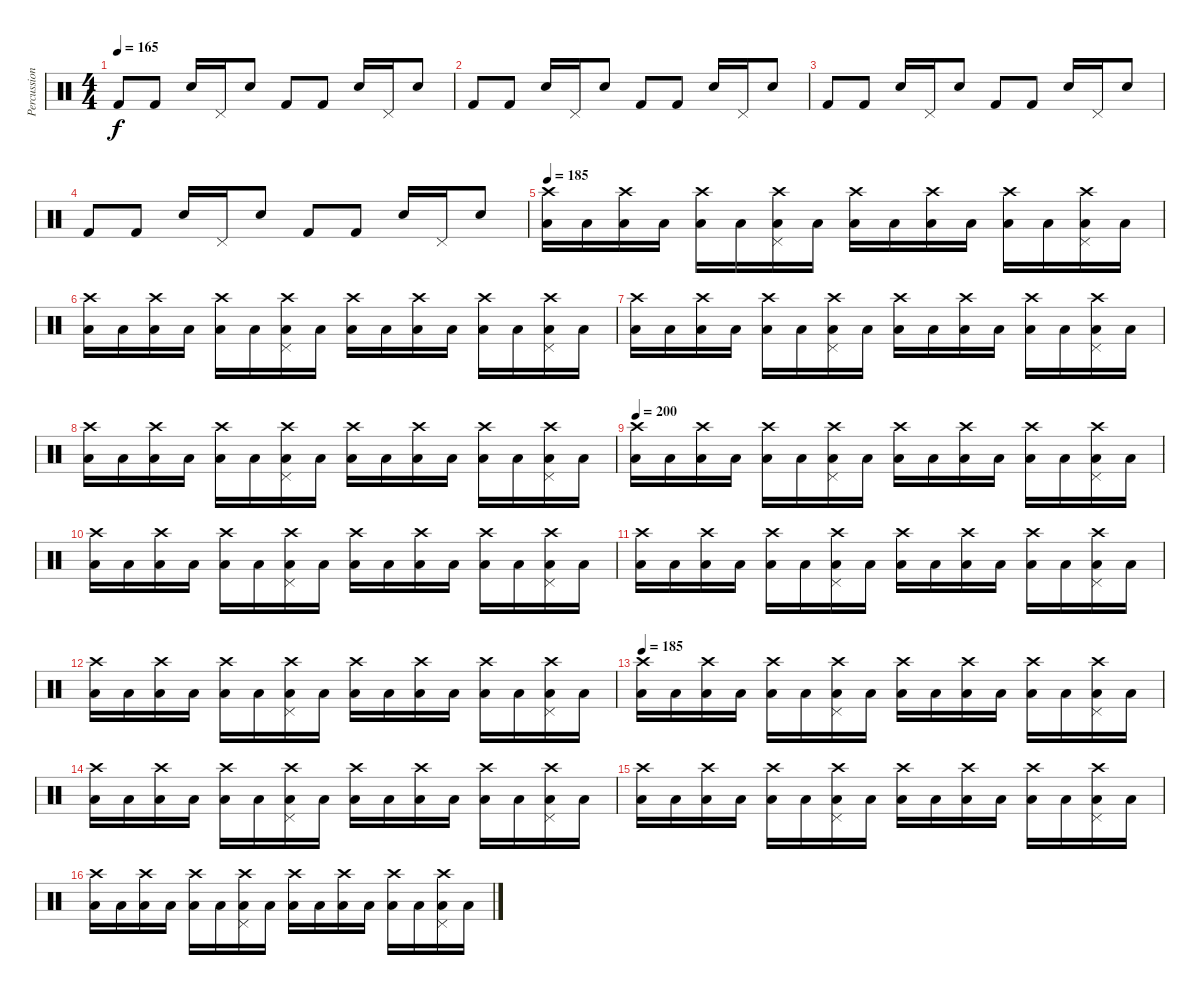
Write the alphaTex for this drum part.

\track ("Percussion" "Percussion") {instrument percussion}
\staff {score}
\articulation defaults
\ts (4 4)
\tempo 145
\tempo 165
\clef neutral
\ks c "Kick (hit) 2".8{dy f} "Kick (hit) 2".8 "Electric Snare (hit)".16 "Pedal Hi-Hat (hit)".16 "Electric Snare (hit)".8 "Kick (hit) 2".8 "Kick (hit) 2".8 "Electric Snare (hit)".16 "Pedal Hi-Hat (hit)".16 "Electric Snare (hit)".8
|
"Kick (hit) 2".8 "Kick (hit) 2".8 "Electric Snare (hit)".16 "Pedal Hi-Hat (hit)".16 "Electric Snare (hit)".8 "Kick (hit) 2".8 "Kick (hit) 2".8 "Electric Snare (hit)".16 "Pedal Hi-Hat (hit)".16 "Electric Snare (hit)".8 |
"Kick (hit) 2".8 "Kick (hit) 2".8 "Electric Snare (hit)".16 "Pedal Hi-Hat (hit)".16 "Electric Snare (hit)".8 "Kick (hit) 2".8 "Kick (hit) 2".8 "Electric Snare (hit)".16 "Pedal Hi-Hat (hit)".16 "Electric Snare (hit)".8 |
"Kick (hit) 2".8 "Kick (hit) 2".8 "Electric Snare (hit)".16 "Pedal Hi-Hat (hit)".16 "Electric Snare (hit)".8 "Kick (hit) 2".8 "Kick (hit) 2".8 "Electric Snare (hit)".16 "Pedal Hi-Hat (hit)".16 "Electric Snare (hit)".8 |
\tempo 185
("Crash high (hit)" "Low Floor Tom (hit)").16 "Low Floor Tom (hit)".16 ("Crash high (hit)" "Low Floor Tom (hit)").16 "Low Floor Tom (hit)".16 ("Crash high (hit)" "Low Floor Tom (hit)").16 "Low Floor Tom (hit)".16 ("Crash high (hit)" "Pedal Hi-Hat (hit)" "Low Floor Tom (hit)").16 "Low Floor Tom (hit)".16 ("Crash high (hit)" "Low Floor Tom (hit)").16 "Low Floor Tom (hit)".16 ("Crash high (hit)" "Low Floor Tom (hit)").16 "Low Floor Tom (hit)".16 ("Crash high (hit)" "Low Floor Tom (hit)").16 "Low Floor Tom (hit)".16 ("Crash high (hit)" "Pedal Hi-Hat (hit)" "Low Floor Tom (hit)").16 "Low Floor Tom (hit)".16 |
("Crash high (hit)" "Low Floor Tom (hit)").16 "Low Floor Tom (hit)".16 ("Crash high (hit)" "Low Floor Tom (hit)").16 "Low Floor Tom (hit)".16 ("Crash high (hit)" "Low Floor Tom (hit)").16 "Low Floor Tom (hit)".16 ("Crash high (hit)" "Pedal Hi-Hat (hit)" "Low Floor Tom (hit)").16 "Low Floor Tom (hit)".16 ("Crash high (hit)" "Low Floor Tom (hit)").16 "Low Floor Tom (hit)".16 ("Crash high (hit)" "Low Floor Tom (hit)").16 "Low Floor Tom (hit)".16 ("Crash high (hit)" "Low Floor Tom (hit)").16 "Low Floor Tom (hit)".16 ("Crash high (hit)" "Pedal Hi-Hat (hit)" "Low Floor Tom (hit)").16 "Low Floor Tom (hit)".16 |
("Crash high (hit)" "Low Floor Tom (hit)").16 "Low Floor Tom (hit)".16 ("Crash high (hit)" "Low Floor Tom (hit)").16 "Low Floor Tom (hit)".16 ("Crash high (hit)" "Low Floor Tom (hit)").16 "Low Floor Tom (hit)".16 ("Crash high (hit)" "Pedal Hi-Hat (hit)" "Low Floor Tom (hit)").16 "Low Floor Tom (hit)".16 ("Crash high (hit)" "Low Floor Tom (hit)").16 "Low Floor Tom (hit)".16 ("Crash high (hit)" "Low Floor Tom (hit)").16 "Low Floor Tom (hit)".16 ("Crash high (hit)" "Low Floor Tom (hit)").16 "Low Floor Tom (hit)".16 ("Crash high (hit)" "Pedal Hi-Hat (hit)" "Low Floor Tom (hit)").16 "Low Floor Tom (hit)".16 |
("Crash high (hit)" "Low Floor Tom (hit)").16 "Low Floor Tom (hit)".16 ("Crash high (hit)" "Low Floor Tom (hit)").16 "Low Floor Tom (hit)".16 ("Crash high (hit)" "Low Floor Tom (hit)").16 "Low Floor Tom (hit)".16 ("Crash high (hit)" "Pedal Hi-Hat (hit)" "Low Floor Tom (hit)").16 "Low Floor Tom (hit)".16 ("Crash high (hit)" "Low Floor Tom (hit)").16 "Low Floor Tom (hit)".16 ("Crash high (hit)" "Low Floor Tom (hit)").16 "Low Floor Tom (hit)".16 ("Crash high (hit)" "Low Floor Tom (hit)").16 "Low Floor Tom (hit)".16 ("Crash high (hit)" "Pedal Hi-Hat (hit)" "Low Floor Tom (hit)").16 "Low Floor Tom (hit)".16 |
\tempo 200
("Crash high (hit)" "Low Floor Tom (hit)").16 "Low Floor Tom (hit)".16 ("Crash high (hit)" "Low Floor Tom (hit)").16 "Low Floor Tom (hit)".16 ("Crash high (hit)" "Low Floor Tom (hit)").16 "Low Floor Tom (hit)".16 ("Crash high (hit)" "Pedal Hi-Hat (hit)" "Low Floor Tom (hit)").16 "Low Floor Tom (hit)".16 ("Crash high (hit)" "Low Floor Tom (hit)").16 "Low Floor Tom (hit)".16 ("Crash high (hit)" "Low Floor Tom (hit)").16 "Low Floor Tom (hit)".16 ("Crash high (hit)" "Low Floor Tom (hit)").16 "Low Floor Tom (hit)".16 ("Crash high (hit)" "Pedal Hi-Hat (hit)" "Low Floor Tom (hit)").16 "Low Floor Tom (hit)".16 |
("Crash high (hit)" "Low Floor Tom (hit)").16 "Low Floor Tom (hit)".16 ("Crash high (hit)" "Low Floor Tom (hit)").16 "Low Floor Tom (hit)".16 ("Crash high (hit)" "Low Floor Tom (hit)").16 "Low Floor Tom (hit)".16 ("Crash high (hit)" "Pedal Hi-Hat (hit)" "Low Floor Tom (hit)").16 "Low Floor Tom (hit)".16 ("Crash high (hit)" "Low Floor Tom (hit)").16 "Low Floor Tom (hit)".16 ("Crash high (hit)" "Low Floor Tom (hit)").16 "Low Floor Tom (hit)".16 ("Crash high (hit)" "Low Floor Tom (hit)").16 "Low Floor Tom (hit)".16 ("Crash high (hit)" "Pedal Hi-Hat (hit)" "Low Floor Tom (hit)").16 "Low Floor Tom (hit)".16 |
("Crash high (hit)" "Low Floor Tom (hit)").16 "Low Floor Tom (hit)".16 ("Crash high (hit)" "Low Floor Tom (hit)").16 "Low Floor Tom (hit)".16 ("Crash high (hit)" "Low Floor Tom (hit)").16 "Low Floor Tom (hit)".16 ("Crash high (hit)" "Pedal Hi-Hat (hit)" "Low Floor Tom (hit)").16 "Low Floor Tom (hit)".16 ("Crash high (hit)" "Low Floor Tom (hit)").16 "Low Floor Tom (hit)".16 ("Crash high (hit)" "Low Floor Tom (hit)").16 "Low Floor Tom (hit)".16 ("Crash high (hit)" "Low Floor Tom (hit)").16 "Low Floor Tom (hit)".16 ("Crash high (hit)" "Pedal Hi-Hat (hit)" "Low Floor Tom (hit)").16 "Low Floor Tom (hit)".16 |
("Crash high (hit)" "Low Floor Tom (hit)").16 "Low Floor Tom (hit)".16 ("Crash high (hit)" "Low Floor Tom (hit)").16 "Low Floor Tom (hit)".16 ("Crash high (hit)" "Low Floor Tom (hit)").16 "Low Floor Tom (hit)".16 ("Crash high (hit)" "Pedal Hi-Hat (hit)" "Low Floor Tom (hit)").16 "Low Floor Tom (hit)".16 ("Crash high (hit)" "Low Floor Tom (hit)").16 "Low Floor Tom (hit)".16 ("Crash high (hit)" "Low Floor Tom (hit)").16 "Low Floor Tom (hit)".16 ("Crash high (hit)" "Low Floor Tom (hit)").16 "Low Floor Tom (hit)".16 ("Crash high (hit)" "Pedal Hi-Hat (hit)" "Low Floor Tom (hit)").16 "Low Floor Tom (hit)".16 |
\tempo 185
("Crash high (hit)" "Low Floor Tom (hit)").16 "Low Floor Tom (hit)".16 ("Crash high (hit)" "Low Floor Tom (hit)").16 "Low Floor Tom (hit)".16 ("Crash high (hit)" "Low Floor Tom (hit)").16 "Low Floor Tom (hit)".16 ("Crash high (hit)" "Pedal Hi-Hat (hit)" "Low Floor Tom (hit)").16 "Low Floor Tom (hit)".16 ("Crash high (hit)" "Low Floor Tom (hit)").16 "Low Floor Tom (hit)".16 ("Crash high (hit)" "Low Floor Tom (hit)").16 "Low Floor Tom (hit)".16 ("Crash high (hit)" "Low Floor Tom (hit)").16 "Low Floor Tom (hit)".16 ("Crash high (hit)" "Pedal Hi-Hat (hit)" "Low Floor Tom (hit)").16 "Low Floor Tom (hit)".16 |
("Crash high (hit)" "Low Floor Tom (hit)").16 "Low Floor Tom (hit)".16 ("Crash high (hit)" "Low Floor Tom (hit)").16 "Low Floor Tom (hit)".16 ("Crash high (hit)" "Low Floor Tom (hit)").16 "Low Floor Tom (hit)".16 ("Crash high (hit)" "Pedal Hi-Hat (hit)" "Low Floor Tom (hit)").16 "Low Floor Tom (hit)".16 ("Crash high (hit)" "Low Floor Tom (hit)").16 "Low Floor Tom (hit)".16 ("Crash high (hit)" "Low Floor Tom (hit)").16 "Low Floor Tom (hit)".16 ("Crash high (hit)" "Low Floor Tom (hit)").16 "Low Floor Tom (hit)".16 ("Crash high (hit)" "Pedal Hi-Hat (hit)" "Low Floor Tom (hit)").16 "Low Floor Tom (hit)".16 |
("Crash high (hit)" "Low Floor Tom (hit)").16 "Low Floor Tom (hit)".16 ("Crash high (hit)" "Low Floor Tom (hit)").16 "Low Floor Tom (hit)".16 ("Crash high (hit)" "Low Floor Tom (hit)").16 "Low Floor Tom (hit)".16 ("Crash high (hit)" "Pedal Hi-Hat (hit)" "Low Floor Tom (hit)").16 "Low Floor Tom (hit)".16 ("Crash high (hit)" "Low Floor Tom (hit)").16 "Low Floor Tom (hit)".16 ("Crash high (hit)" "Low Floor Tom (hit)").16 "Low Floor Tom (hit)".16 ("Crash high (hit)" "Low Floor Tom (hit)").16 "Low Floor Tom (hit)".16 ("Crash high (hit)" "Pedal Hi-Hat (hit)" "Low Floor Tom (hit)").16 "Low Floor Tom (hit)".16 |
("Crash high (hit)" "Low Floor Tom (hit)").16 "Low Floor Tom (hit)".16 ("Crash high (hit)" "Low Floor Tom (hit)").16 "Low Floor Tom (hit)".16 ("Crash high (hit)" "Low Floor Tom (hit)").16 "Low Floor Tom (hit)".16 ("Crash high (hit)" "Pedal Hi-Hat (hit)" "Low Floor Tom (hit)").16 "Low Floor Tom (hit)".16 ("Crash high (hit)" "Low Floor Tom (hit)").16 "Low Floor Tom (hit)".16 ("Crash high (hit)" "Low Floor Tom (hit)").16 "Low Floor Tom (hit)".16 ("Crash high (hit)" "Low Floor Tom (hit)").16 "Low Floor Tom (hit)".16 ("Crash high (hit)" "Pedal Hi-Hat (hit)" "Low Floor Tom (hit)").16 "Low Floor Tom (hit)".16
